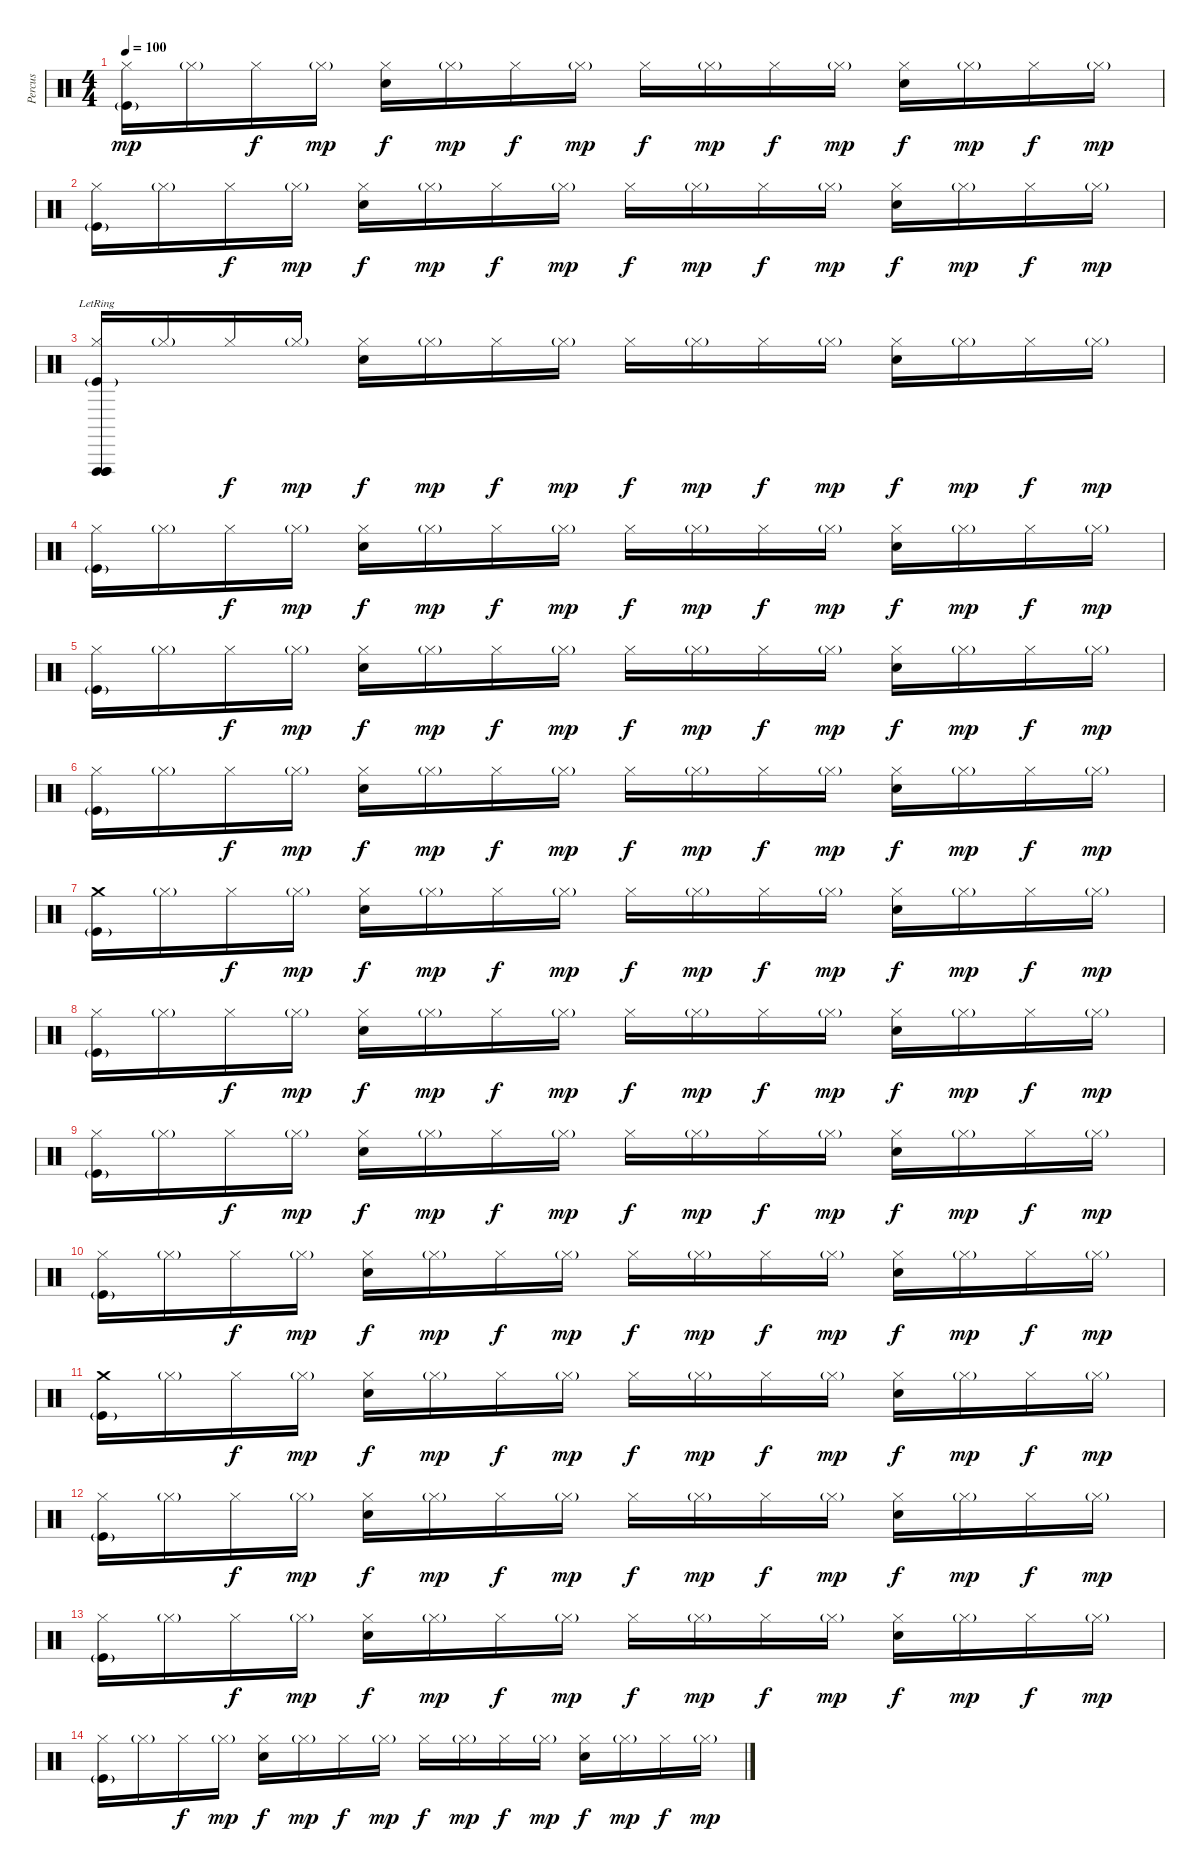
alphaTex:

\track ("Percus" "Percus") {instrument percussion}
\staff {score}
\articulation defaults
\ts (4 4)
\tempo 100
\clef neutral
\ks c
("Hi-Hat (closed)" "Kick (hit)"{g}).16{dy mp} "Hi-Hat (closed)"{g}.16 "Hi-Hat (closed)".16{dy f} "Hi-Hat (closed)"{g}.16{dy mp} ("Hi-Hat (closed)" "Electric Snare (hit)").16{dy f} "Hi-Hat (closed)"{g}.16{dy mp} "Hi-Hat (closed)".16{dy f} "Hi-Hat (closed)"{g}.16{dy mp} "Hi-Hat (closed)".16{dy f} "Hi-Hat (closed)"{g}.16{dy mp} "Hi-Hat (closed)".16{dy f} "Hi-Hat (closed)"{g}.16{dy mp} ("Hi-Hat (closed)" "Electric Snare (hit)").16{dy f} "Hi-Hat (closed)"{g}.16{dy mp} "Hi-Hat (closed)".16{dy f} "Hi-Hat (closed)"{g}.16{dy mp} |
("Hi-Hat (closed)" "Kick (hit)"{g}).16 "Hi-Hat (closed)"{g}.16 "Hi-Hat (closed)".16{dy f} "Hi-Hat (closed)"{g}.16{dy mp} ("Hi-Hat (closed)" "Electric Snare (hit)").16{dy f} "Hi-Hat (closed)"{g}.16{dy mp} "Hi-Hat (closed)".16{dy f} "Hi-Hat (closed)"{g}.16{dy mp} "Hi-Hat (closed)".16{dy f} "Hi-Hat (closed)"{g}.16{dy mp} "Hi-Hat (closed)".16{dy f} "Hi-Hat (closed)"{g}.16{dy mp} ("Hi-Hat (closed)" "Electric Snare (hit)").16{dy f} "Hi-Hat (closed)"{g}.16{dy mp} "Hi-Hat (closed)".16{dy f} "Hi-Hat (closed)"{g}.16{dy mp} |
("Hi-Hat (closed)" "Vibraslap (hit)"{lr} "Vibraslap (hit)"{lr} "Vibraslap (hit)"{lr} "Kick (hit)"{g}).16 "Hi-Hat (closed)"{g}.16 "Hi-Hat (closed)".16{dy f} "Hi-Hat (closed)"{g}.16{dy mp} ("Hi-Hat (closed)" "Electric Snare (hit)").16{dy f} "Hi-Hat (closed)"{g}.16{dy mp} "Hi-Hat (closed)".16{dy f} "Hi-Hat (closed)"{g}.16{dy mp} "Hi-Hat (closed)".16{dy f} "Hi-Hat (closed)"{g}.16{dy mp} "Hi-Hat (closed)".16{dy f} "Hi-Hat (closed)"{g}.16{dy mp} ("Hi-Hat (closed)" "Electric Snare (hit)").16{dy f} "Hi-Hat (closed)"{g}.16{dy mp} "Hi-Hat (closed)".16{dy f} "Hi-Hat (closed)"{g}.16{dy mp} |
("Hi-Hat (closed)" "Kick (hit)"{g}).16 "Hi-Hat (closed)"{g}.16 "Hi-Hat (closed)".16{dy f} "Hi-Hat (closed)"{g}.16{dy mp} ("Hi-Hat (closed)" "Electric Snare (hit)").16{dy f} "Hi-Hat (closed)"{g}.16{dy mp} "Hi-Hat (closed)".16{dy f} "Hi-Hat (closed)"{g}.16{dy mp} "Hi-Hat (closed)".16{dy f} "Hi-Hat (closed)"{g}.16{dy mp} "Hi-Hat (closed)".16{dy f} "Hi-Hat (closed)"{g}.16{dy mp} ("Hi-Hat (closed)" "Electric Snare (hit)").16{dy f} "Hi-Hat (closed)"{g}.16{dy mp} "Hi-Hat (closed)".16{dy f} "Hi-Hat (closed)"{g}.16{dy mp} |
("Hi-Hat (closed)" "Kick (hit)"{g}).16 "Hi-Hat (closed)"{g}.16 "Hi-Hat (closed)".16{dy f} "Hi-Hat (closed)"{g}.16{dy mp} ("Hi-Hat (closed)" "Electric Snare (hit)").16{dy f} "Hi-Hat (closed)"{g}.16{dy mp} "Hi-Hat (closed)".16{dy f} "Hi-Hat (closed)"{g}.16{dy mp} "Hi-Hat (closed)".16{dy f} "Hi-Hat (closed)"{g}.16{dy mp} "Hi-Hat (closed)".16{dy f} "Hi-Hat (closed)"{g}.16{dy mp} ("Hi-Hat (closed)" "Electric Snare (hit)").16{dy f} "Hi-Hat (closed)"{g}.16{dy mp} "Hi-Hat (closed)".16{dy f} "Hi-Hat (closed)"{g}.16{dy mp} |
("Hi-Hat (closed)" "Kick (hit)"{g}).16 "Hi-Hat (closed)"{g}.16 "Hi-Hat (closed)".16{dy f} "Hi-Hat (closed)"{g}.16{dy mp} ("Hi-Hat (closed)" "Electric Snare (hit)").16{dy f} "Hi-Hat (closed)"{g}.16{dy mp} "Hi-Hat (closed)".16{dy f} "Hi-Hat (closed)"{g}.16{dy mp} "Hi-Hat (closed)".16{dy f} "Hi-Hat (closed)"{g}.16{dy mp} "Hi-Hat (closed)".16{dy f} "Hi-Hat (closed)"{g}.16{dy mp} ("Hi-Hat (closed)" "Electric Snare (hit)").16{dy f} "Hi-Hat (closed)"{g}.16{dy mp} "Hi-Hat (closed)".16{dy f} "Hi-Hat (closed)"{g}.16{dy mp} |
("Crash medium (hit)" "Kick (hit)"{g}).16{volume 13} "Hi-Hat (closed)"{g}.16 "Hi-Hat (closed)".16{dy f} "Hi-Hat (closed)"{g}.16{dy mp} ("Hi-Hat (closed)" "Electric Snare (hit)").16{dy f} "Hi-Hat (closed)"{g}.16{dy mp} "Hi-Hat (closed)".16{dy f} "Hi-Hat (closed)"{g}.16{dy mp} "Hi-Hat (closed)".16{dy f} "Hi-Hat (closed)"{g}.16{dy mp} "Hi-Hat (closed)".16{dy f} "Hi-Hat (closed)"{g}.16{dy mp} ("Hi-Hat (closed)" "Electric Snare (hit)").16{dy f} "Hi-Hat (closed)"{g}.16{dy mp} "Hi-Hat (closed)".16{dy f} "Hi-Hat (closed)"{g}.16{dy mp} |
("Hi-Hat (closed)" "Kick (hit)"{g}).16 "Hi-Hat (closed)"{g}.16 "Hi-Hat (closed)".16{dy f} "Hi-Hat (closed)"{g}.16{dy mp} ("Hi-Hat (closed)" "Electric Snare (hit)").16{dy f} "Hi-Hat (closed)"{g}.16{dy mp} "Hi-Hat (closed)".16{dy f} "Hi-Hat (closed)"{g}.16{dy mp} "Hi-Hat (closed)".16{dy f} "Hi-Hat (closed)"{g}.16{dy mp} "Hi-Hat (closed)".16{dy f} "Hi-Hat (closed)"{g}.16{dy mp} ("Hi-Hat (closed)" "Electric Snare (hit)").16{dy f} "Hi-Hat (closed)"{g}.16{dy mp} "Hi-Hat (closed)".16{dy f} "Hi-Hat (closed)"{g}.16{dy mp} |
("Hi-Hat (closed)" "Kick (hit)"{g}).16{volume 10} "Hi-Hat (closed)"{g}.16 "Hi-Hat (closed)".16{dy f} "Hi-Hat (closed)"{g}.16{dy mp} ("Hi-Hat (closed)" "Electric Snare (hit)").16{dy f} "Hi-Hat (closed)"{g}.16{dy mp} "Hi-Hat (closed)".16{dy f} "Hi-Hat (closed)"{g}.16{dy mp} "Hi-Hat (closed)".16{dy f} "Hi-Hat (closed)"{g}.16{dy mp} "Hi-Hat (closed)".16{dy f} "Hi-Hat (closed)"{g}.16{dy mp} ("Hi-Hat (closed)" "Electric Snare (hit)").16{dy f} "Hi-Hat (closed)"{g}.16{dy mp} "Hi-Hat (closed)".16{dy f} "Hi-Hat (closed)"{g}.16{dy mp} |
("Hi-Hat (closed)" "Kick (hit)"{g}).16 "Hi-Hat (closed)"{g}.16 "Hi-Hat (closed)".16{dy f} "Hi-Hat (closed)"{g}.16{dy mp} ("Hi-Hat (closed)" "Electric Snare (hit)").16{dy f} "Hi-Hat (closed)"{g}.16{dy mp} "Hi-Hat (closed)".16{dy f} "Hi-Hat (closed)"{g}.16{dy mp} "Hi-Hat (closed)".16{dy f} "Hi-Hat (closed)"{g}.16{dy mp} "Hi-Hat (closed)".16{dy f} "Hi-Hat (closed)"{g}.16{dy mp} ("Hi-Hat (closed)" "Electric Snare (hit)").16{dy f} "Hi-Hat (closed)"{g}.16{dy mp} "Hi-Hat (closed)".16{dy f} "Hi-Hat (closed)"{g}.16{dy mp} |
("Crash medium (hit)" "Kick (hit)"{g}).16{volume 7} "Hi-Hat (closed)"{g}.16 "Hi-Hat (closed)".16{dy f} "Hi-Hat (closed)"{g}.16{dy mp} ("Hi-Hat (closed)" "Electric Snare (hit)").16{dy f} "Hi-Hat (closed)"{g}.16{dy mp} "Hi-Hat (closed)".16{dy f} "Hi-Hat (closed)"{g}.16{dy mp} "Hi-Hat (closed)".16{dy f} "Hi-Hat (closed)"{g}.16{dy mp} "Hi-Hat (closed)".16{dy f} "Hi-Hat (closed)"{g}.16{dy mp} ("Hi-Hat (closed)" "Electric Snare (hit)").16{dy f} "Hi-Hat (closed)"{g}.16{dy mp} "Hi-Hat (closed)".16{dy f} "Hi-Hat (closed)"{g}.16{dy mp} |
("Hi-Hat (closed)" "Kick (hit)"{g}).16 "Hi-Hat (closed)"{g}.16 "Hi-Hat (closed)".16{dy f} "Hi-Hat (closed)"{g}.16{dy mp} ("Hi-Hat (closed)" "Electric Snare (hit)").16{dy f} "Hi-Hat (closed)"{g}.16{dy mp} "Hi-Hat (closed)".16{dy f} "Hi-Hat (closed)"{g}.16{dy mp} "Hi-Hat (closed)".16{dy f} "Hi-Hat (closed)"{g}.16{dy mp} "Hi-Hat (closed)".16{dy f} "Hi-Hat (closed)"{g}.16{dy mp} ("Hi-Hat (closed)" "Electric Snare (hit)").16{dy f} "Hi-Hat (closed)"{g}.16{dy mp} "Hi-Hat (closed)".16{dy f} "Hi-Hat (closed)"{g}.16{dy mp} |
("Hi-Hat (closed)" "Kick (hit)"{g}).16{volume 0} "Hi-Hat (closed)"{g}.16 "Hi-Hat (closed)".16{dy f} "Hi-Hat (closed)"{g}.16{dy mp} ("Hi-Hat (closed)" "Electric Snare (hit)").16{dy f} "Hi-Hat (closed)"{g}.16{dy mp} "Hi-Hat (closed)".16{dy f} "Hi-Hat (closed)"{g}.16{dy mp} "Hi-Hat (closed)".16{dy f} "Hi-Hat (closed)"{g}.16{dy mp} "Hi-Hat (closed)".16{dy f} "Hi-Hat (closed)"{g}.16{dy mp} ("Hi-Hat (closed)" "Electric Snare (hit)").16{dy f} "Hi-Hat (closed)"{g}.16{dy mp} "Hi-Hat (closed)".16{dy f} "Hi-Hat (closed)"{g}.16{dy mp} |
("Hi-Hat (closed)" "Kick (hit)"{g}).16 "Hi-Hat (closed)"{g}.16 "Hi-Hat (closed)".16{dy f} "Hi-Hat (closed)"{g}.16{dy mp} ("Hi-Hat (closed)" "Electric Snare (hit)").16{dy f} "Hi-Hat (closed)"{g}.16{dy mp} "Hi-Hat (closed)".16{dy f} "Hi-Hat (closed)"{g}.16{dy mp} "Hi-Hat (closed)".16{dy f} "Hi-Hat (closed)"{g}.16{dy mp} "Hi-Hat (closed)".16{dy f} "Hi-Hat (closed)"{g}.16{dy mp} ("Hi-Hat (closed)" "Electric Snare (hit)").16{dy f} "Hi-Hat (closed)"{g}.16{dy mp} "Hi-Hat (closed)".16{dy f} "Hi-Hat (closed)"{g}.16{dy mp}
